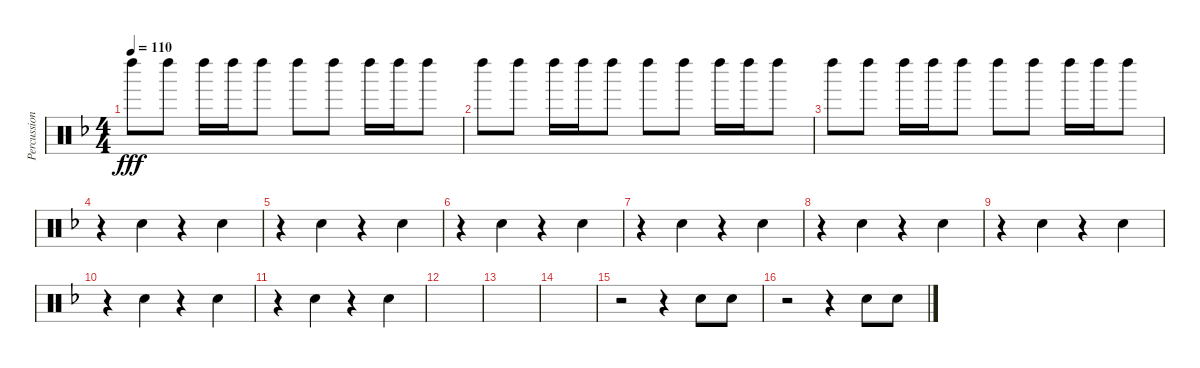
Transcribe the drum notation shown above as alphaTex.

\track ("Percussions" "Percussion") {instrument percussion}
\staff {score}
\articulation defaults
\ts (4 4)
\tempo 110
\clef neutral
\ks f "Left Maraca (hit)".8{dy fff} "Left Maraca (hit)".8 "Left Maraca (hit)".16 "Left Maraca (hit)".16 "Left Maraca (hit)".8 "Left Maraca (hit)".8 "Left Maraca (hit)".8 "Left Maraca (hit)".16 "Left Maraca (hit)".16 "Left Maraca (hit)".8
|
"Left Maraca (hit)".8 "Left Maraca (hit)".8 "Left Maraca (hit)".16 "Left Maraca (hit)".16 "Left Maraca (hit)".8 "Left Maraca (hit)".8 "Left Maraca (hit)".8 "Left Maraca (hit)".16 "Left Maraca (hit)".16 "Left Maraca (hit)".8 |
"Left Maraca (hit)".8 "Left Maraca (hit)".8 "Left Maraca (hit)".16 "Left Maraca (hit)".16 "Left Maraca (hit)".8 "Left Maraca (hit)".8 "Left Maraca (hit)".8 "Left Maraca (hit)".16 "Left Maraca (hit)".16 "Left Maraca (hit)".8 |
r.4 "Hand Clap (hit)".4 r.4 "Hand Clap (hit)".4 |
r.4 "Hand Clap (hit)".4 r.4 "Hand Clap (hit)".4 |
r.4 "Hand Clap (hit)".4 r.4 "Hand Clap (hit)".4 |
r.4 "Hand Clap (hit)".4 r.4 "Hand Clap (hit)".4 |
r.4 "Hand Clap (hit)".4 r.4 "Hand Clap (hit)".4 |
r.4 "Hand Clap (hit)".4 r.4 "Hand Clap (hit)".4 |
r.4 "Hand Clap (hit)".4 r.4 "Hand Clap (hit)".4 |
r.4 "Hand Clap (hit)".4 r.4 "Hand Clap (hit)".4 |
|
|
|
r.2 r.4 "Hand Clap (hit)".8 "Hand Clap (hit)".8 |
r.2 r.4 "Hand Clap (hit)".8 "Hand Clap (hit)".8
